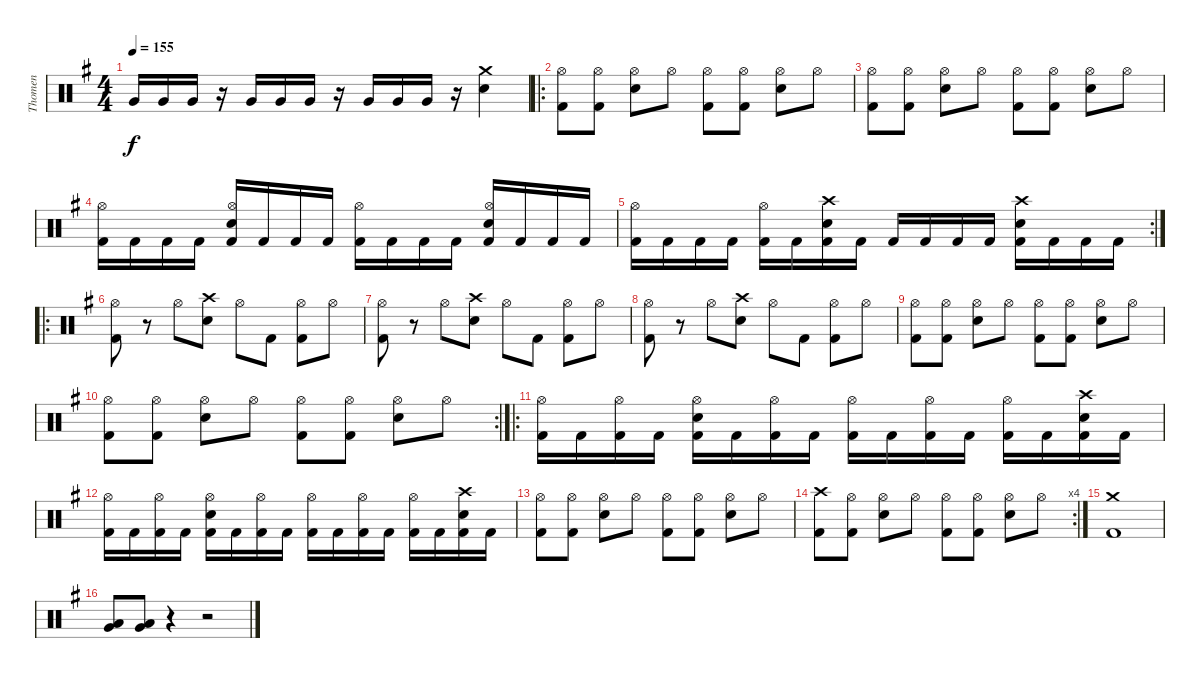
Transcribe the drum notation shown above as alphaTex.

\track ("Thomen" "Thomen") {instrument percussion}
\staff {score}
\articulation defaults
\ts (4 4)
\tempo 155
\clef neutral
\ks g "Very Low Tom (hit)".16{dy f} "Very Low Tom (hit)".16 "Very Low Tom (hit)".16
r.16 "Very Low Tom (hit)".16 "Very Low Tom (hit)".16 "Very Low Tom (hit)".16 r.16 "Very Low Tom (hit)".16 "Very Low Tom (hit)".16 "Very Low Tom (hit)".16 r.16 ("Crash medium (hit)" "Electric Snare (hit)").4 |
\ro
("Hi-Hat (open)" "Kick (hit) 2").8 ("Hi-Hat (open)" "Kick (hit) 2").8 ("Hi-Hat (open)" "Electric Snare (hit)").8 "Hi-Hat (open)".8 ("Hi-Hat (open)" "Kick (hit) 2").8 ("Hi-Hat (open)" "Kick (hit) 2").8 ("Hi-Hat (open)" "Electric Snare (hit)").8 "Hi-Hat (open)".8 |
("Hi-Hat (open)" "Kick (hit) 2").8 ("Hi-Hat (open)" "Kick (hit) 2").8 ("Hi-Hat (open)" "Electric Snare (hit)").8 "Hi-Hat (open)".8 ("Hi-Hat (open)" "Kick (hit) 2").8 ("Hi-Hat (open)" "Kick (hit) 2").8 ("Hi-Hat (open)" "Electric Snare (hit)").8 "Hi-Hat (open)".8 |
("Hi-Hat (open)" "Kick (hit) 2").16 "Kick (hit) 2".16 "Kick (hit) 2".16 "Kick (hit) 2".16 ("Hi-Hat (open)" "Electric Snare (hit)" "Kick (hit) 2").16 "Kick (hit) 2".16 "Kick (hit) 2".16 "Kick (hit) 2".16 ("Hi-Hat (open)" "Kick (hit) 2").16 "Kick (hit) 2".16 "Kick (hit) 2".16 "Kick (hit) 2".16 ("Hi-Hat (open)" "Electric Snare (hit)" "Kick (hit) 2").16 "Kick (hit) 2".16 "Kick (hit) 2".16 "Kick (hit) 2".16 |
\rc 2
("Hi-Hat (open)" "Kick (hit) 2").16 "Kick (hit) 2".16 "Kick (hit) 2".16 "Kick (hit) 2".16 ("Hi-Hat (open)" "Kick (hit) 2").16 "Kick (hit) 2".16 ("Crash high (hit)" "Electric Snare (hit)" "Kick (hit) 2").16 "Kick (hit) 2".16 "Kick (hit) 2".16 "Kick (hit) 2".16 "Kick (hit) 2".16 "Kick (hit) 2".16 ("Crash high (hit)" "Electric Snare (hit)" "Kick (hit) 2").16 "Kick (hit) 2".16 "Kick (hit) 2".16 "Kick (hit) 2".16 |
\ro
("Hi-Hat (open)" "Kick (hit) 2").8 r.8 "Hi-Hat (open)".8 ("Crash high (hit)" "Electric Snare (hit)").8 "Hi-Hat (open)".8 "Kick (hit) 2".8 ("Hi-Hat (open)" "Kick (hit) 2").8 "Hi-Hat (open)".8 |
("Hi-Hat (open)" "Kick (hit) 2").8 r.8 "Hi-Hat (open)".8 ("Crash high (hit)" "Electric Snare (hit)").8 "Hi-Hat (open)".8 "Kick (hit) 2".8 ("Hi-Hat (open)" "Kick (hit) 2").8 "Hi-Hat (open)".8 |
("Hi-Hat (open)" "Kick (hit) 2").8 r.8 "Hi-Hat (open)".8 ("Crash high (hit)" "Electric Snare (hit)").8 "Hi-Hat (open)".8 "Kick (hit) 2".8 ("Hi-Hat (open)" "Kick (hit) 2").8 "Hi-Hat (open)".8 |
("Hi-Hat (open)" "Kick (hit) 2").8 ("Hi-Hat (open)" "Kick (hit) 2").8 ("Hi-Hat (open)" "Electric Snare (hit)").8 "Hi-Hat (open)".8 ("Hi-Hat (open)" "Kick (hit) 2").8 ("Hi-Hat (open)" "Kick (hit) 2").8 ("Hi-Hat (open)" "Electric Snare (hit)").8 "Hi-Hat (open)".8 |
\rc 2
("Hi-Hat (open)" "Kick (hit) 2").8 ("Hi-Hat (open)" "Kick (hit) 2").8 ("Hi-Hat (open)" "Electric Snare (hit)").8 "Hi-Hat (open)".8 ("Hi-Hat (open)" "Kick (hit) 2").8 ("Hi-Hat (open)" "Kick (hit) 2").8 ("Hi-Hat (open)" "Electric Snare (hit)").8 "Hi-Hat (open)".8 |
\ro
("Hi-Hat (open)" "Kick (hit) 2").16 "Kick (hit) 2".16 ("Hi-Hat (open)" "Kick (hit) 2").16 "Kick (hit) 2".16 ("Hi-Hat (open)" "Electric Snare (hit)" "Kick (hit) 2").16 "Kick (hit) 2".16 ("Hi-Hat (open)" "Kick (hit) 2").16 "Kick (hit) 2".16 ("Hi-Hat (open)" "Kick (hit) 2").16 "Kick (hit) 2".16 ("Hi-Hat (open)" "Kick (hit) 2").16 "Kick (hit) 2".16 ("Hi-Hat (open)" "Kick (hit) 2").16 "Kick (hit) 2".16 ("Crash high (hit)" "Electric Snare (hit)" "Kick (hit) 2").16 "Kick (hit) 2".16 |
("Hi-Hat (open)" "Kick (hit) 2").16 "Kick (hit) 2".16 ("Hi-Hat (open)" "Kick (hit) 2").16 "Kick (hit) 2".16 ("Hi-Hat (open)" "Electric Snare (hit)" "Kick (hit) 2").16 "Kick (hit) 2".16 ("Hi-Hat (open)" "Kick (hit) 2").16 "Kick (hit) 2".16 ("Hi-Hat (open)" "Kick (hit) 2").16 "Kick (hit) 2".16 ("Hi-Hat (open)" "Kick (hit) 2").16 "Kick (hit) 2".16 ("Hi-Hat (open)" "Kick (hit) 2").16 "Kick (hit) 2".16 ("Crash high (hit)" "Electric Snare (hit)" "Kick (hit) 2").16 "Kick (hit) 2".16 |
("Hi-Hat (open)" "Kick (hit) 2").8 ("Hi-Hat (open)" "Kick (hit) 2").8 ("Hi-Hat (open)" "Electric Snare (hit)").8 "Hi-Hat (open)".8 ("Hi-Hat (open)" "Kick (hit) 2").8 ("Hi-Hat (open)" "Kick (hit) 2").8 ("Hi-Hat (open)" "Electric Snare (hit)").8 "Hi-Hat (open)".8 |
\rc 4
("Crash high (hit)" "Kick (hit) 2").8 ("Hi-Hat (open)" "Kick (hit) 2").8 ("Hi-Hat (open)" "Electric Snare (hit)").8 "Hi-Hat (open)".8 ("Hi-Hat (open)" "Kick (hit) 2").8 ("Hi-Hat (open)" "Kick (hit) 2").8 ("Hi-Hat (open)" "Electric Snare (hit)").8 "Hi-Hat (open)".8 |
("Crash medium (hit)" "Kick (hit) 2").1 |
("Low Tom (hit)" "Very Low Tom (hit)").8 ("Low Tom (hit)" "Very Low Tom (hit)").8 r.4 r.2
